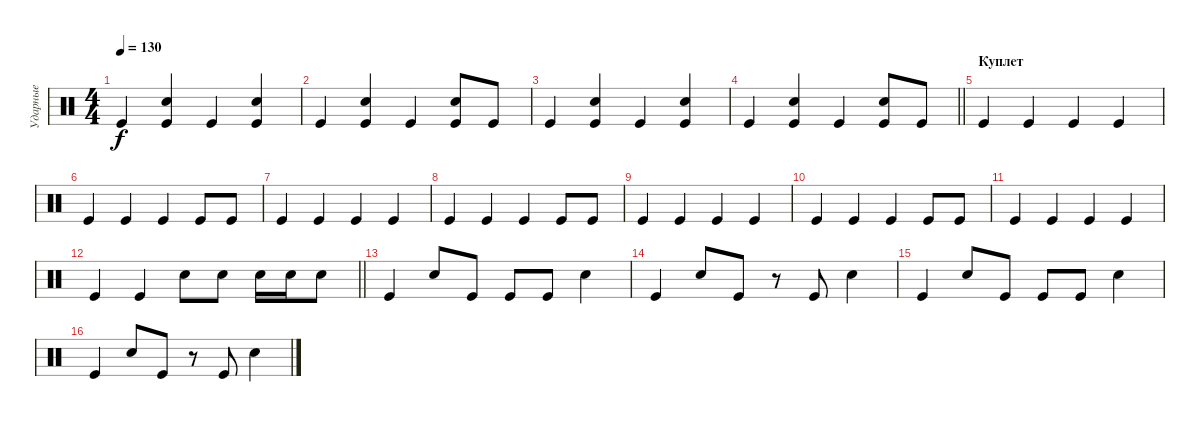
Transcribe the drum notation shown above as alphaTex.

\track ("Ударные" "Ударные") {instrument percussion}
\staff {score}
\articulation defaults
\ts (4 4)
\tempo 130
\clef neutral
\ks c "Kick (hit)".4{dy f}
("Kick (hit)" "Snare (hit) 2").4 "Kick (hit)".4 ("Kick (hit)" "Snare (hit) 2").4 |
"Kick (hit)".4 ("Snare (hit) 2" "Kick (hit)").4 "Kick (hit)".4 ("Snare (hit) 2" "Kick (hit)").8 "Kick (hit)".8 |
"Kick (hit)".4 ("Snare (hit) 2" "Kick (hit)").4 "Kick (hit)".4 ("Snare (hit) 2" "Kick (hit)").4 |
\barLineRight lightlight "Kick (hit)".4
("Snare (hit) 2" "Kick (hit)").4 "Kick (hit)".4 ("Snare (hit) 2" "Kick (hit)").8 "Kick (hit)".8 |
\section ("" "Куплет")
"Kick (hit)".4 "Kick (hit)".4 "Kick (hit)".4 "Kick (hit)".4 |
"Kick (hit)".4 "Kick (hit)".4 "Kick (hit)".4 "Kick (hit)".8 "Kick (hit)".8 |
"Kick (hit)".4 "Kick (hit)".4 "Kick (hit)".4 "Kick (hit)".4 |
"Kick (hit)".4 "Kick (hit)".4 "Kick (hit)".4 "Kick (hit)".8 "Kick (hit)".8 |
"Kick (hit)".4 "Kick (hit)".4 "Kick (hit)".4 "Kick (hit)".4 |
"Kick (hit)".4 "Kick (hit)".4 "Kick (hit)".4 "Kick (hit)".8 "Kick (hit)".8 |
"Kick (hit)".4 "Kick (hit)".4 "Kick (hit)".4 "Kick (hit)".4 |
\barLineRight lightlight "Kick (hit)".4 "Kick (hit)".4 "Snare (hit) 2".8 "Snare (hit) 2".8 "Snare (hit) 2".16 "Snare (hit) 2".16 "Snare (hit) 2".8
|
"Kick (hit)".4 "Snare (hit) 2".8 "Kick (hit)".8 "Kick (hit)".8 "Kick (hit)".8 "Snare (hit) 2".4 |
"Kick (hit)".4 "Snare (hit) 2".8 "Kick (hit)".8 r.8 "Kick (hit)".8 "Snare (hit) 2".4 |
"Kick (hit)".4 "Snare (hit) 2".8 "Kick (hit)".8 "Kick (hit)".8 "Kick (hit)".8 "Snare (hit) 2".4 |
"Kick (hit)".4 "Snare (hit) 2".8 "Kick (hit)".8 r.8 "Kick (hit)".8 "Snare (hit) 2".4
